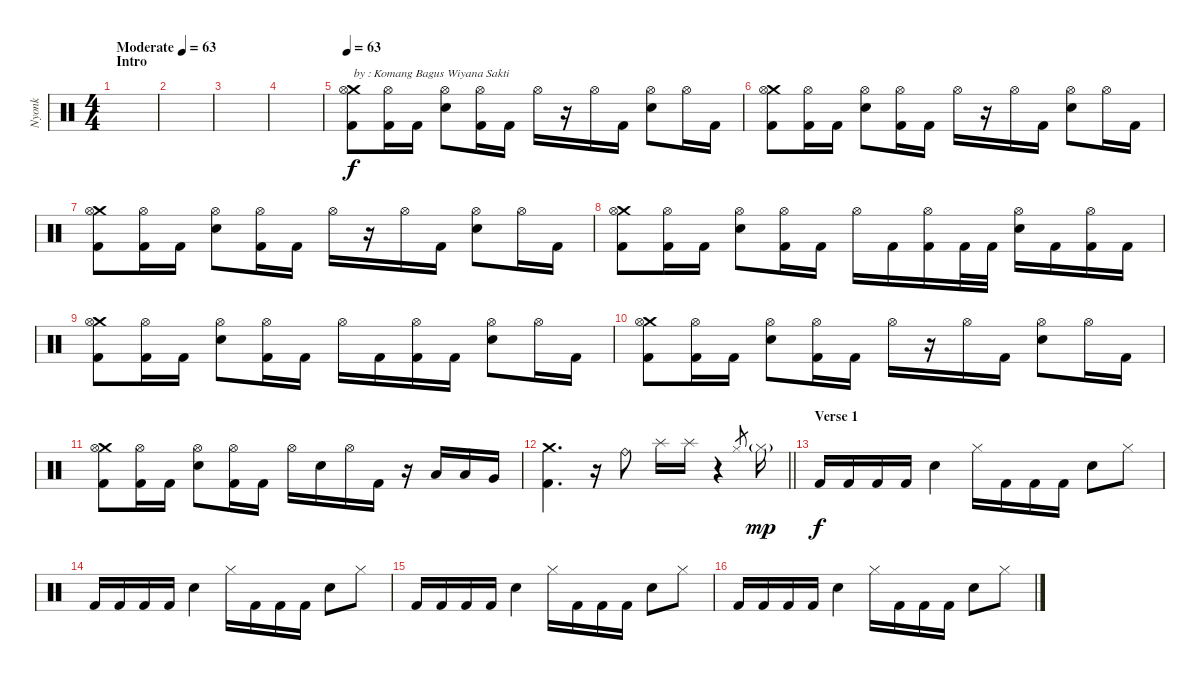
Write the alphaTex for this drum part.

\track ("Nyonk" "Nyonk") {instrument percussion}
\staff {score}
\articulation defaults
\ts (4 4)
\section ("" "Intro")
\tempo (63 "Moderate")
\tempo 60
\tempo (63 "Moderate")
\clef neutral
\ks c
|
|
|
|
\tempo 63
("Crash medium (hit)" "Hi-Hat (open)" "Kick (hit) 2").8{txt "by : Komang Bagus Wiyana Sakti"} ("Hi-Hat (open)" "Kick (hit) 2").16 "Kick (hit) 2".16 ("Hi-Hat (open)" "Electric Snare (hit)").8 ("Hi-Hat (open)" "Kick (hit) 2").16 "Kick (hit) 2".16 "Hi-Hat (open)".16 r.16 "Hi-Hat (open)".16 "Kick (hit) 2".16 ("Hi-Hat (open)" "Electric Snare (hit)").8 "Hi-Hat (open)".16 "Kick (hit) 2".16 |
("Crash medium (hit)" "Hi-Hat (open)" "Kick (hit) 2").8 ("Hi-Hat (open)" "Kick (hit) 2").16 "Kick (hit) 2".16 ("Hi-Hat (open)" "Electric Snare (hit)").8 ("Hi-Hat (open)" "Kick (hit) 2").16 "Kick (hit) 2".16 "Hi-Hat (open)".16 r.16 "Hi-Hat (open)".16 "Kick (hit) 2".16 ("Hi-Hat (open)" "Electric Snare (hit)").8 "Hi-Hat (open)".16 "Kick (hit) 2".16 |
("Crash medium (hit)" "Hi-Hat (open)" "Kick (hit) 2").8 ("Hi-Hat (open)" "Kick (hit) 2").16 "Kick (hit) 2".16 ("Hi-Hat (open)" "Electric Snare (hit)").8 ("Hi-Hat (open)" "Kick (hit) 2").16 "Kick (hit) 2".16 "Hi-Hat (open)".16 r.16 "Hi-Hat (open)".16 "Kick (hit) 2".16 ("Hi-Hat (open)" "Electric Snare (hit)").8 "Hi-Hat (open)".16 "Kick (hit) 2".16 |
("Crash medium (hit)" "Hi-Hat (open)" "Kick (hit) 2").8 ("Hi-Hat (open)" "Kick (hit) 2").16 "Kick (hit) 2".16 ("Hi-Hat (open)" "Electric Snare (hit)").8 ("Hi-Hat (open)" "Kick (hit) 2").16 "Kick (hit) 2".16 "Hi-Hat (open)".16 "Kick (hit) 2".16 ("Hi-Hat (open)" "Kick (hit) 2").16 "Kick (hit) 2".32 "Kick (hit) 2".32 ("Hi-Hat (open)" "Electric Snare (hit)").16 "Kick (hit) 2".16 ("Hi-Hat (open)" "Kick (hit) 2").16 "Kick (hit) 2".16 |
("Crash medium (hit)" "Hi-Hat (open)" "Kick (hit) 2").8 ("Hi-Hat (open)" "Kick (hit) 2").16 "Kick (hit) 2".16 ("Hi-Hat (open)" "Electric Snare (hit)").8 ("Hi-Hat (open)" "Kick (hit) 2").16 "Kick (hit) 2".16 "Hi-Hat (open)".16 "Kick (hit) 2".16 ("Hi-Hat (open)" "Kick (hit) 2").16 "Kick (hit) 2".16 ("Hi-Hat (open)" "Electric Snare (hit)").8 "Hi-Hat (open)".16 "Kick (hit) 2".16 |
("Crash medium (hit)" "Hi-Hat (open)" "Kick (hit) 2").8 ("Hi-Hat (open)" "Kick (hit) 2").16 "Kick (hit) 2".16 ("Hi-Hat (open)" "Electric Snare (hit)").8 ("Hi-Hat (open)" "Kick (hit) 2").16 "Kick (hit) 2".16 "Hi-Hat (open)".16 r.16 "Hi-Hat (open)".16 "Kick (hit) 2".16 ("Hi-Hat (open)" "Electric Snare (hit)").8 "Hi-Hat (open)".16 "Kick (hit) 2".16 |
("Crash medium (hit)" "Hi-Hat (open)" "Kick (hit) 2").8 ("Hi-Hat (open)" "Kick (hit) 2").16 "Kick (hit) 2".16 ("Hi-Hat (open)" "Electric Snare (hit)").8 ("Hi-Hat (open)" "Kick (hit) 2").16 "Kick (hit) 2".16 "Hi-Hat (open)".16 "Electric Snare (hit)".16 "Hi-Hat (open)".16 "Kick (hit) 2".16 r.16 "Low Tom (hit)".16 "Low Tom (hit)".16 "Very Low Tom (hit)".16 |
\barLineRight lightlight
("Crash medium (hit)" "Kick (hit) 2").4{d} r.16 "Ride (bell)".8 "Splash (hit)".16 "Splash (hit)".16 r.4 "Hi-Hat (closed)".8{gr} "Hi-Hat (closed)"{g}.16{dy mp} |
\section ("" "Verse 1")
"Kick (hit) 2".16{dy f} "Kick (hit) 2".16 "Kick (hit) 2".16 "Kick (hit) 2".16 "Electric Snare (hit)".4 "Hi-Hat (closed)".16 "Kick (hit) 2".16 "Kick (hit) 2".16 "Kick (hit) 2".16 "Electric Snare (hit)".8 "Hi-Hat (closed)".8 |
"Kick (hit) 2".16 "Kick (hit) 2".16 "Kick (hit) 2".16 "Kick (hit) 2".16 "Electric Snare (hit)".4 "Hi-Hat (closed)".16 "Kick (hit) 2".16 "Kick (hit) 2".16 "Kick (hit) 2".16 "Electric Snare (hit)".8 "Hi-Hat (closed)".8 |
"Kick (hit) 2".16 "Kick (hit) 2".16 "Kick (hit) 2".16 "Kick (hit) 2".16 "Electric Snare (hit)".4 "Hi-Hat (closed)".16 "Kick (hit) 2".16 "Kick (hit) 2".16 "Kick (hit) 2".16 "Electric Snare (hit)".8 "Hi-Hat (closed)".8 |
"Kick (hit) 2".16 "Kick (hit) 2".16 "Kick (hit) 2".16 "Kick (hit) 2".16 "Electric Snare (hit)".4 "Hi-Hat (closed)".16 "Kick (hit) 2".16 "Kick (hit) 2".16 "Kick (hit) 2".16 "Electric Snare (hit)".8 "Hi-Hat (closed)".8
